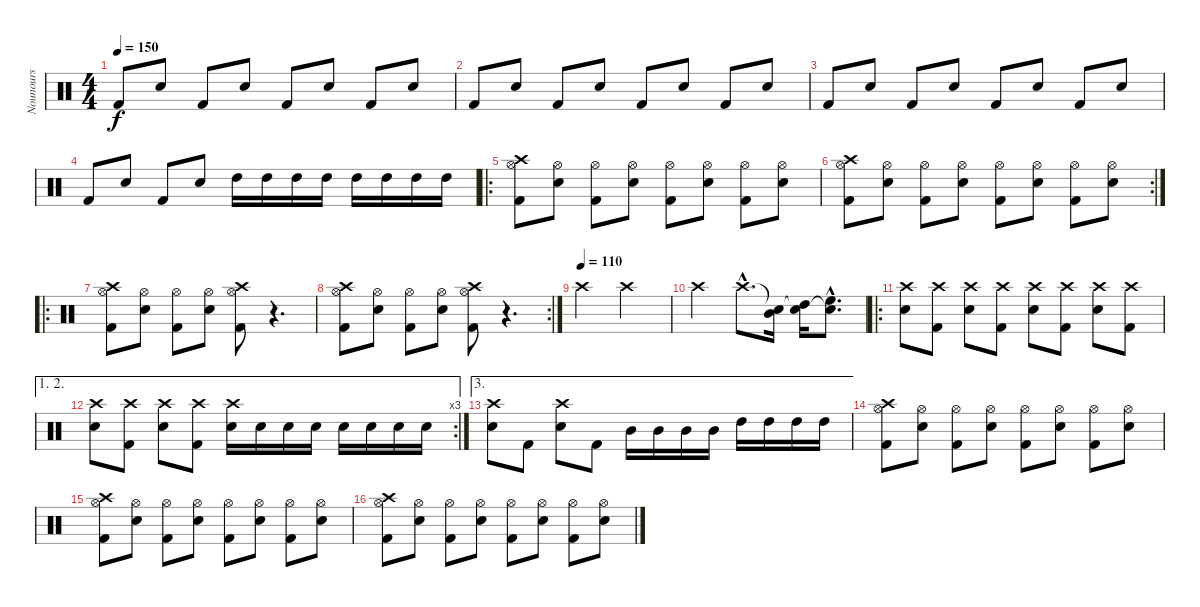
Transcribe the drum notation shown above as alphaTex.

\track ("Nounours" "Nounours") {instrument percussion}
\staff {score}
\articulation defaults
\ts (4 4)
\tempo 150
\clef neutral
\ks c "Kick (hit) 2".8{dy f} "Snare (hit) 2".8 "Kick (hit) 2".8 "Snare (hit) 2".8 "Kick (hit) 2".8 "Snare (hit) 2".8 "Kick (hit) 2".8 "Snare (hit) 2".8
|
"Kick (hit) 2".8 "Snare (hit) 2".8 "Kick (hit) 2".8 "Snare (hit) 2".8 "Kick (hit) 2".8 "Snare (hit) 2".8 "Kick (hit) 2".8 "Snare (hit) 2".8 |
"Kick (hit) 2".8 "Snare (hit) 2".8 "Kick (hit) 2".8 "Snare (hit) 2".8 "Kick (hit) 2".8 "Snare (hit) 2".8 "Kick (hit) 2".8 "Snare (hit) 2".8 |
"Kick (hit) 2".8 "Snare (hit) 2".8 "Kick (hit) 2".8 "Snare (hit) 2".8 "High Tom (hit)".16 "High Tom (hit)".16 "High Tom (hit)".16 "High Tom (hit)".16 "High Tom (hit)".16 "High Tom (hit)".16 "High Tom (hit)".16 "High Tom (hit)".16 |
\ro
("Crash high (hit)" "Hi-Hat (open)" "Kick (hit) 2").8 ("Hi-Hat (open)" "Snare (hit) 2").8 ("Hi-Hat (open)" "Kick (hit) 2").8 ("Hi-Hat (open)" "Snare (hit) 2").8 ("Hi-Hat (open)" "Kick (hit) 2").8 ("Hi-Hat (open)" "Snare (hit) 2").8 ("Hi-Hat (open)" "Kick (hit) 2").8 ("Hi-Hat (open)" "Snare (hit) 2").8 |
\rc 2
("Crash high (hit)" "Hi-Hat (open)" "Kick (hit) 2").8 ("Hi-Hat (open)" "Snare (hit) 2").8 ("Hi-Hat (open)" "Kick (hit) 2").8 ("Hi-Hat (open)" "Snare (hit) 2").8 ("Hi-Hat (open)" "Kick (hit) 2").8 ("Hi-Hat (open)" "Snare (hit) 2").8 ("Hi-Hat (open)" "Kick (hit) 2").8 ("Hi-Hat (open)" "Snare (hit) 2").8 |
\ro
("Crash high (hit)" "Hi-Hat (open)" "Kick (hit) 2").8 ("Hi-Hat (open)" "Snare (hit) 2").8 ("Hi-Hat (open)" "Kick (hit) 2").8 ("Hi-Hat (open)" "Snare (hit) 2").8 ("Crash high (hit)" "Hi-Hat (open)" "Kick (hit) 2").8 r.4{d} |
\rc 2
("Crash high (hit)" "Hi-Hat (open)" "Kick (hit) 2").8 ("Hi-Hat (open)" "Snare (hit) 2").8 ("Hi-Hat (open)" "Kick (hit) 2").8 ("Hi-Hat (open)" "Snare (hit) 2").8 ("Crash high (hit)" "Hi-Hat (open)" "Kick (hit) 2").8 r.4{d} |
\tempo (110)
"Crash high (hit)".2 "Crash high (hit)".2 |
"Crash high (hit)".2 "Crash high (hit)"{hac}.8{d} ("Snare (hit)"{t} "Mid Tom (hit)").16 ("Snare (hit)"{t} "High Tom (hit)").16 ("Snare (hit)"{hac t} "High Floor Tom (hit)"{hac}).8{d} |
\ro
("Crash high (hit)" "Snare (hit) 2").8 ("Crash high (hit)" "Kick (hit) 2").8 ("Crash high (hit)" "Snare (hit) 2").8 ("Crash high (hit)" "Kick (hit) 2").8 ("Crash high (hit)" "Snare (hit) 2").8 ("Crash high (hit)" "Kick (hit) 2").8 ("Crash high (hit)" "Snare (hit) 2").8 ("Crash high (hit)" "Kick (hit) 2").8 |
\ae (1 2)
\rc 3
("Crash high (hit)" "Snare (hit) 2").8 ("Crash high (hit)" "Kick (hit) 2").8 ("Crash high (hit)" "Snare (hit) 2").8 ("Crash high (hit)" "Kick (hit) 2").8 ("Crash high (hit)" "Snare (hit) 2").16 "Snare (hit) 2".16 "Snare (hit) 2".16 "Snare (hit) 2".16 "Snare (hit) 2".16 "Snare (hit) 2".16 "Snare (hit) 2".16 "Snare (hit) 2".16 |
\ae 3
("Crash high (hit)" "Snare (hit) 2").8 "Kick (hit) 2".8 ("Crash high (hit)" "Snare (hit) 2").8 "Kick (hit) 2".8 "Mid Tom (hit)".16 "Mid Tom (hit)".16 "Mid Tom (hit)".16 "Mid Tom (hit)".16 "High Tom (hit)".16 "High Tom (hit)".16 "High Tom (hit)".16 "High Tom (hit)".16 |
("Crash high (hit)" "Hi-Hat (open)" "Kick (hit) 2").8 ("Hi-Hat (open)" "Snare (hit) 2").8 ("Hi-Hat (open)" "Kick (hit) 2").8 ("Hi-Hat (open)" "Snare (hit) 2").8 ("Hi-Hat (open)" "Kick (hit) 2").8 ("Hi-Hat (open)" "Snare (hit) 2").8 ("Hi-Hat (open)" "Kick (hit) 2").8 ("Hi-Hat (open)" "Snare (hit) 2").8 |
("Crash high (hit)" "Hi-Hat (open)" "Kick (hit) 2").8 ("Hi-Hat (open)" "Snare (hit) 2").8 ("Hi-Hat (open)" "Kick (hit) 2").8 ("Hi-Hat (open)" "Snare (hit) 2").8 ("Hi-Hat (open)" "Kick (hit) 2").8 ("Hi-Hat (open)" "Snare (hit) 2").8 ("Hi-Hat (open)" "Kick (hit) 2").8 ("Hi-Hat (open)" "Snare (hit) 2").8 |
("Crash high (hit)" "Hi-Hat (open)" "Kick (hit) 2").8 ("Hi-Hat (open)" "Snare (hit) 2").8 ("Hi-Hat (open)" "Kick (hit) 2").8 ("Hi-Hat (open)" "Snare (hit) 2").8 ("Hi-Hat (open)" "Kick (hit) 2").8 ("Hi-Hat (open)" "Snare (hit) 2").8 ("Hi-Hat (open)" "Kick (hit) 2").8 ("Hi-Hat (open)" "Snare (hit) 2").8
